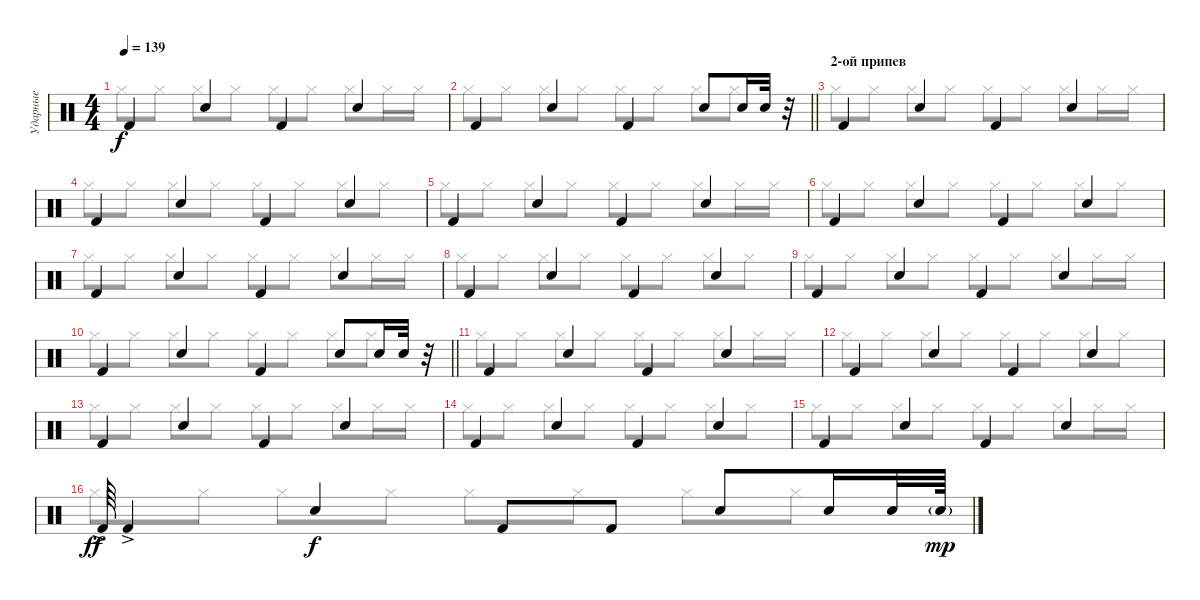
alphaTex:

\track ("Ударные" "Ударные") {instrument percussion}
\staff {score}
\articulation defaults
\voice
\ts (4 4)
\tempo 139
\clef neutral
\ks c "Kick (hit) 2".4{dy f} "Snare (hit) 2".4 "Kick (hit) 2".4 "Snare (hit) 2".4
|
\barLineRight lightlight "Kick (hit) 2".4 "Snare (hit) 2".4 "Kick (hit) 2".4 "Snare (hit) 2".8 "Snare (hit) 2".16 "Snare (hit) 2".32
r.32 |
\section ("" "2-ой припев")
"Kick (hit) 2".4 "Snare (hit) 2".4 "Kick (hit) 2".4 "Snare (hit) 2".4 |
"Kick (hit) 2".4 "Snare (hit) 2".4 "Kick (hit) 2".4 "Snare (hit) 2".4 |
"Kick (hit) 2".4 "Snare (hit) 2".4 "Kick (hit) 2".4 "Snare (hit) 2".4 |
"Kick (hit) 2".4 "Snare (hit) 2".4 "Kick (hit) 2".4 "Snare (hit) 2".4 |
"Kick (hit) 2".4 "Snare (hit) 2".4 "Kick (hit) 2".4 "Snare (hit) 2".4 |
"Kick (hit) 2".4 "Snare (hit) 2".4 "Kick (hit) 2".4 "Snare (hit) 2".4 |
"Kick (hit) 2".4 "Snare (hit) 2".4 "Kick (hit) 2".4 "Snare (hit) 2".4 |
\barLineRight lightlight "Kick (hit) 2".4 "Snare (hit) 2".4 "Kick (hit) 2".4 "Snare (hit) 2".8 "Snare (hit) 2".16 "Snare (hit) 2".32
r.32 |
"Kick (hit) 2".4 "Snare (hit) 2".4 "Kick (hit) 2".4 "Snare (hit) 2".4 |
"Kick (hit) 2".4 "Snare (hit) 2".4 "Kick (hit) 2".4 "Snare (hit) 2".4 |
"Kick (hit) 2".4 "Snare (hit) 2".4 "Kick (hit) 2".4 "Snare (hit) 2".4 |
"Kick (hit) 2".4 "Snare (hit) 2".4 "Kick (hit) 2".4 "Snare (hit) 2".4 |
"Kick (hit) 2".4 "Snare (hit) 2".4 "Kick (hit) 2".4 "Snare (hit) 2".4 |
"Kick (hit) 2"{ac}.64{dy ff} "Kick (hit) 2"{ac}.4 "Snare (hit) 2".4{dy f} "Kick (hit) 2".8 "Kick (hit) 2".8 "Snare (hit) 2".8 "Snare (hit) 2".16 "Snare (hit) 2".32 "Snare (hit) 2"{g}.64{dy mp}
\voice
\clef neutral
\ottava regular
\simile none
\ks c "Hi-Hat (closed)".8{dy f} "Hi-Hat (closed)".8 "Hi-Hat (closed)".8 "Hi-Hat (closed)".8 "Hi-Hat (closed)".8 "Hi-Hat (closed)".8 "Hi-Hat (closed)".8 "Hi-Hat (closed)".16 "Hi-Hat (closed)".16
|
\barLineRight lightlight "Hi-Hat (closed)".8 "Hi-Hat (closed)".8 "Hi-Hat (closed)".8 "Hi-Hat (closed)".8 "Hi-Hat (closed)".8 "Hi-Hat (closed)".8 "Hi-Hat (closed)".8 "Hi-Hat (closed)".8
|
"Hi-Hat (closed)".8 "Hi-Hat (closed)".8 "Hi-Hat (closed)".8 "Hi-Hat (closed)".8 "Hi-Hat (closed)".8 "Hi-Hat (closed)".8 "Hi-Hat (closed)".8 "Hi-Hat (closed)".16 "Hi-Hat (closed)".16 |
"Hi-Hat (closed)".8 "Hi-Hat (closed)".8 "Hi-Hat (closed)".8 "Hi-Hat (closed)".8 "Hi-Hat (closed)".8 "Hi-Hat (closed)".8 "Hi-Hat (closed)".8 "Hi-Hat (closed)".8 |
"Hi-Hat (closed)".8 "Hi-Hat (closed)".8 "Hi-Hat (closed)".8 "Hi-Hat (closed)".8 "Hi-Hat (closed)".8 "Hi-Hat (closed)".8 "Hi-Hat (closed)".8 "Hi-Hat (closed)".16 "Hi-Hat (closed)".16 |
"Hi-Hat (closed)".8 "Hi-Hat (closed)".8 "Hi-Hat (closed)".8 "Hi-Hat (closed)".8 "Hi-Hat (closed)".8 "Hi-Hat (closed)".8 "Hi-Hat (closed)".8 "Hi-Hat (closed)".8 |
"Hi-Hat (closed)".8 "Hi-Hat (closed)".8 "Hi-Hat (closed)".8 "Hi-Hat (closed)".8 "Hi-Hat (closed)".8 "Hi-Hat (closed)".8 "Hi-Hat (closed)".8 "Hi-Hat (closed)".16 "Hi-Hat (closed)".16 |
"Hi-Hat (closed)".8 "Hi-Hat (closed)".8 "Hi-Hat (closed)".8 "Hi-Hat (closed)".8 "Hi-Hat (closed)".8 "Hi-Hat (closed)".8 "Hi-Hat (closed)".8 "Hi-Hat (closed)".8 |
"Hi-Hat (closed)".8 "Hi-Hat (closed)".8 "Hi-Hat (closed)".8 "Hi-Hat (closed)".8 "Hi-Hat (closed)".8 "Hi-Hat (closed)".8 "Hi-Hat (closed)".8 "Hi-Hat (closed)".16 "Hi-Hat (closed)".16 |
\barLineRight lightlight "Hi-Hat (closed)".8 "Hi-Hat (closed)".8 "Hi-Hat (closed)".8 "Hi-Hat (closed)".8 "Hi-Hat (closed)".8 "Hi-Hat (closed)".8 "Hi-Hat (closed)".8 "Hi-Hat (closed)".8
|
"Hi-Hat (closed)".8 "Hi-Hat (closed)".8 "Hi-Hat (closed)".8 "Hi-Hat (closed)".8 "Hi-Hat (closed)".8 "Hi-Hat (closed)".8 "Hi-Hat (closed)".8 "Hi-Hat (closed)".16 "Hi-Hat (closed)".16 |
"Hi-Hat (closed)".8 "Hi-Hat (closed)".8 "Hi-Hat (closed)".8 "Hi-Hat (closed)".8 "Hi-Hat (closed)".8 "Hi-Hat (closed)".8 "Hi-Hat (closed)".8 "Hi-Hat (closed)".8 |
"Hi-Hat (closed)".8 "Hi-Hat (closed)".8 "Hi-Hat (closed)".8 "Hi-Hat (closed)".8 "Hi-Hat (closed)".8 "Hi-Hat (closed)".8 "Hi-Hat (closed)".8 "Hi-Hat (closed)".16 "Hi-Hat (closed)".16 |
"Hi-Hat (closed)".8 "Hi-Hat (closed)".8 "Hi-Hat (closed)".8 "Hi-Hat (closed)".8 "Hi-Hat (closed)".8 "Hi-Hat (closed)".8 "Hi-Hat (closed)".8 "Hi-Hat (closed)".8 |
"Hi-Hat (closed)".8 "Hi-Hat (closed)".8 "Hi-Hat (closed)".8 "Hi-Hat (closed)".8 "Hi-Hat (closed)".8 "Hi-Hat (closed)".8 "Hi-Hat (closed)".8 "Hi-Hat (closed)".16 "Hi-Hat (closed)".16 |
"Hi-Hat (closed)".8 "Hi-Hat (closed)".8 "Hi-Hat (closed)".8 "Hi-Hat (closed)".8 "Hi-Hat (closed)".8 "Hi-Hat (closed)".8 "Hi-Hat (closed)".8 "Hi-Hat (closed)".8
